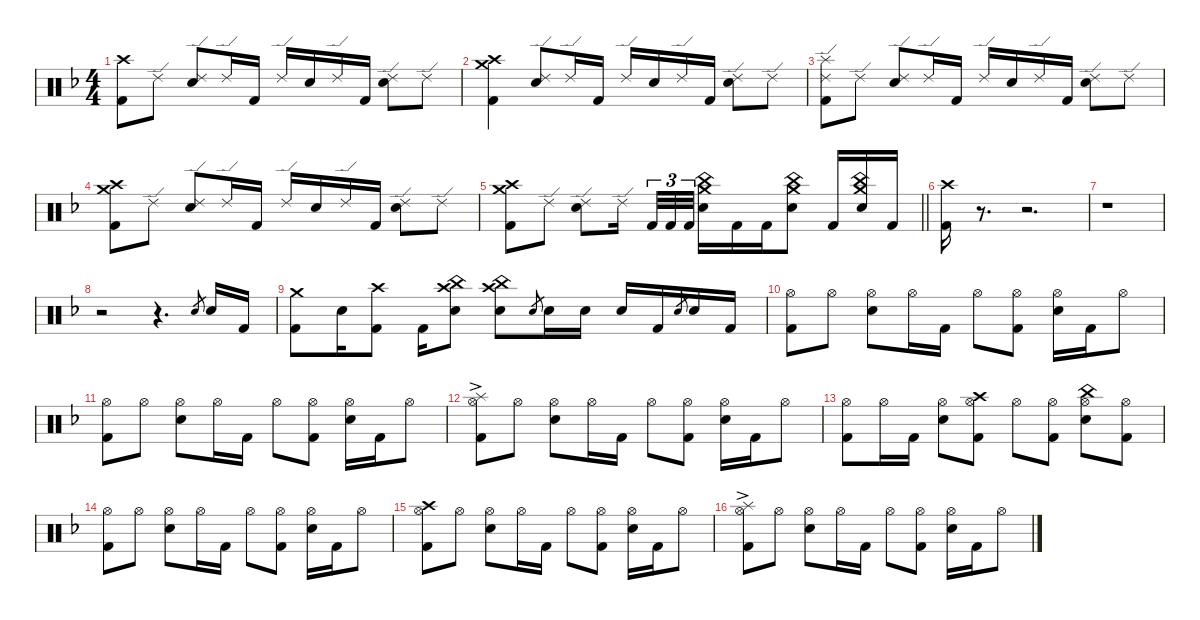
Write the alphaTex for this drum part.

\defaultSystemsLayout 4
\hideDynamics
\bracketExtendMode nobrackets
\singleTrackTrackNamePolicy hidden
\multiTrackTrackNamePolicy hidden
\otherSystemsTrackNameOrientation horizontal
\track ("Martin Lopez - Drums" "drm.") {defaultSystemsLayout 4 instrument percussion}
\staff {score}
\articulation defaults
\ts (4 4)
\tempo (89 hide)
\clef neutral
\ks dminor
("Crash high (hit)"{acc forcenatural} "Kick (hit) 2"{acc forcenatural}).8{dy mf beam Down} "Ride (edge) 2"{acc forcenatural}.8{dy f beam Down} ("Ride (edge) 2"{acc forcenatural} "Snare (hit) 2"{acc forcenatural}).8{dy mf beam Up} "Ride (edge) 2"{acc forcenatural}.16{dy f beam Up} "Kick (hit) 2"{acc forcenatural}.16{beam Up} "Ride (edge) 2"{acc forcenatural}.16{dy mf beam Up} "Snare (hit) 2"{acc forcenatural}.16{beam Up} "Ride (edge) 2"{acc forcenatural}.16{beam Up} "Kick (hit) 2"{acc forcenatural}.16{dy f beam Up} ("Ride (edge) 2"{acc forcenatural} "Snare (hit) 2"{acc forcenatural}).8{dy mf beam Down} "Ride (edge) 2"{acc forcenatural}.8{beam Down} |
\tempo (88 hide)
("Crash high (hit)"{acc forcenatural} "Crash medium (hit)"{acc forcenatural} "Kick (hit) 2"{acc forcenatural}).4{beam Down} ("Ride (edge) 2"{acc forcenatural} "Snare (hit) 2"{acc forcenatural}).8{beam Up} "Ride (edge) 2"{acc forcenatural}.16{beam Up} "Kick (hit) 2"{acc forcenatural}.16{beam Up} "Ride (edge) 2"{acc forcenatural}.16{beam Up} "Snare (hit) 2"{acc forcenatural}.16{beam Up} "Ride (edge) 2"{acc forcenatural}.16{beam Up} "Kick (hit) 2"{acc forcenatural}.16{beam Up} ("Ride (edge) 2"{acc forcenatural} "Snare (hit) 2"{acc forcenatural}).8{beam Down} "Ride (edge) 2"{acc forcenatural}.8{beam Down} |
\tempo (89 hide)
("Splash (hit)"{acc forcenatural} "Ride (edge) 2"{acc forcenatural} "Kick (hit) 2"{acc forcenatural}).8{beam Down} "Ride (edge) 2"{acc forcenatural}.8{dy f beam Down} ("Ride (edge) 2"{acc forcenatural} "Snare (hit) 2"{acc forcenatural}).8{dy mf beam Up} "Ride (edge) 2"{acc forcenatural}.16{dy f beam Up} "Kick (hit) 2"{acc forcenatural}.16{beam Up} "Ride (edge) 2"{acc forcenatural}.16{dy mf beam Up} "Snare (hit) 2"{acc forcenatural}.16{beam Up} "Ride (edge) 2"{acc forcenatural}.16{beam Up} "Kick (hit) 2"{acc forcenatural}.16{dy f beam Up} ("Ride (edge) 2"{acc forcenatural} "Snare (hit) 2"{acc forcenatural}).8{dy mf beam Down} "Ride (edge) 2"{acc forcenatural}.8{beam Down} |
\tempo (88 hide)
("Crash high (hit)"{acc forcenatural} "Crash medium (hit)"{acc forcenatural} "Kick (hit) 2"{acc forcenatural}).8{beam Down} "Ride (edge) 2"{acc forcenatural}.8{dy f beam Down} ("Ride (edge) 2"{acc forcenatural} "Snare (hit) 2"{acc forcenatural}).8{dy mf beam Up} "Ride (edge) 2"{acc forcenatural}.16{beam Up} "Kick (hit) 2"{acc forcenatural}.16{beam Up} "Ride (edge) 2"{acc forcenatural}.16{beam Up} "Snare (hit) 2"{acc forcenatural}.16{beam Up} "Ride (edge) 2"{acc forcenatural}.16{beam Up} "Kick (hit) 2"{acc forcenatural}.16{beam Up} ("Ride (edge) 2"{acc forcenatural} "Snare (hit) 2"{acc forcenatural}).8{beam Down} "Ride (edge) 2"{acc forcenatural}.8{beam Down} |
\tempo (89 hide)
\tempo (88 0.99375 hide)
\barLineRight lightlight
("Crash high (hit)"{acc forcenatural} "Crash medium (hit)"{acc forcenatural} "Kick (hit) 2"{acc forcenatural}).8{beam Down} "Ride (edge) 2"{acc forcenatural}.8{beam Down} ("Ride (edge) 2"{acc forcenatural} "Snare (hit) 2"{acc forcenatural}).8{beam Down} "Ride (edge) 2"{acc forcenatural}.16{beam Down} "Kick (hit) 2"{acc forcenatural}.32{tu (3 2) beam Up} "Kick (hit) 2"{acc forcenatural}.32{tu (3 2) beam Up} "Kick (hit) 2"{acc forcenatural}.32{tu (3 2) beam Up} ("Crash medium (hit)"{acc forcenatural} "China (hit)"{acc forcenatural} "Snare (hit) 2"{acc forcenatural}).16{beam Down} "Kick (hit) 2"{acc forcenatural}.16{beam Down} "Kick (hit) 2"{acc forcenatural}.16{beam Down} ("Crash medium (hit)"{acc forcenatural} "China (hit)"{acc forcenatural} "Snare (hit) 2"{acc forcenatural}).8{beam Down} "Kick (hit) 2"{acc forcenatural}.16{beam Up} ("Crash medium (hit)"{acc forcenatural} "China (hit)"{acc forcenatural} "Snare (hit) 2"{acc forcenatural}).16{beam Up} "Kick (hit) 2"{acc forcenatural}.16{beam Up} |
("Crash high (hit)"{acc forcenatural} "Kick (hit) 2"{acc forcenatural}).16{dy f beam Down} r.8{d beam Down} r.2{d beam Down} |
\tempo (89 hide)
r.1{beam Down} |
\tempo (88 0.00625 hide)
\tempo (89 0.99375 hide)
r.2{beam Down} r.4{d beam Down} "Electric Snare (hit)"{acc forcenatural}.8{gr dy p beam Up} "Snare (hit) 2"{acc forcenatural}.16{dy f beam Up} "Kick (hit) 2"{acc forcenatural}.16{beam Up} |
\tempo (88 0.99375 hide)
("Crash medium (hit)"{acc forcenatural} "Kick (hit) 2"{acc forcenatural}).8{beam Down} "Snare (hit) 2"{acc forcenatural}.16{beam Down} ("Crash high (hit)"{acc forcenatural} "Kick (hit) 2"{acc forcenatural}).8{beam Down} "Kick (hit) 2"{acc forcenatural}.16{beam Down} ("China (hit)"{acc forcenatural} "Crash high (hit)"{acc forcenatural} "Snare (hit) 2"{acc forcenatural}).8{beam Down} ("China (hit)"{acc forcenatural} "Crash high (hit)"{acc forcenatural} "Snare (hit) 2"{acc forcenatural}).8{beam Down} "Electric Snare (hit)"{acc forcenatural}.8{gr dy mp beam Up} "Snare (hit) 2"{acc forcenatural}.16{dy f beam Down} "Snare (hit) 2"{acc forcenatural}.16{beam Down} "Snare (hit) 2"{acc forcenatural}.16{beam Up} "Kick (hit) 2"{acc forcenatural}.16{beam Up} "Electric Snare (hit)"{acc forcenatural}.8{gr dy mp beam Up} "Snare (hit) 2"{acc forcenatural}.16{dy f beam Up} "Kick (hit) 2"{acc forcenatural}.16{beam Up} |
("Hi-Hat (open)"{acc forcenatural} "Kick (hit) 2"{acc forcenatural}).8{beam Down} "Hi-Hat (open)"{acc forcenatural}.8{beam Down} ("Hi-Hat (open)"{acc forcenatural} "Snare (hit) 2"{acc forcenatural}).8{beam Down} "Hi-Hat (open)"{acc forcenatural}.16{beam Down} "Kick (hit) 2"{acc forcenatural}.16{beam Down} "Hi-Hat (open)"{acc forcenatural}.8{beam Down} ("Hi-Hat (open)"{acc forcenatural} "Kick (hit) 2"{acc forcenatural}).8{beam Down} ("Hi-Hat (open)"{acc forcenatural} "Snare (hit) 2"{acc forcenatural}).16{beam Down} "Kick (hit) 2"{acc forcenatural}.16{beam Down} "Hi-Hat (open)"{acc forcenatural}.8{beam Down} |
\tempo (89 hide)
("Hi-Hat (open)"{acc forcenatural} "Kick (hit) 2"{acc forcenatural}).8{beam Down} "Hi-Hat (open)"{acc forcenatural}.8{beam Down} ("Hi-Hat (open)"{acc forcenatural} "Snare (hit) 2"{acc forcenatural}).8{beam Down} "Hi-Hat (open)"{acc forcenatural}.16{beam Down} "Kick (hit) 2"{acc forcenatural}.16{beam Down} "Hi-Hat (open)"{acc forcenatural}.8{beam Down} ("Hi-Hat (open)"{acc forcenatural} "Kick (hit) 2"{acc forcenatural}).8{beam Down} ("Hi-Hat (open)"{acc forcenatural} "Snare (hit) 2"{acc forcenatural}).16{beam Down} "Kick (hit) 2"{acc forcenatural}.16{beam Down} "Hi-Hat (open)"{acc forcenatural}.8{beam Down} |
\tempo (88 hide)
("Splash (hit)"{ac acc forcenatural} "Hi-Hat (open)"{acc forcenatural} "Kick (hit) 2"{acc forcenatural}).8{beam Down} "Hi-Hat (open)"{acc forcenatural}.8{beam Down} ("Hi-Hat (open)"{acc forcenatural} "Snare (hit) 2"{acc forcenatural}).8{beam Down} "Hi-Hat (open)"{acc forcenatural}.16{beam Down} "Kick (hit) 2"{acc forcenatural}.16{beam Down} "Hi-Hat (open)"{acc forcenatural}.8{beam Down} ("Hi-Hat (open)"{acc forcenatural} "Kick (hit) 2"{acc forcenatural}).8{beam Down} ("Hi-Hat (open)"{acc forcenatural} "Snare (hit) 2"{acc forcenatural}).16{beam Down} "Kick (hit) 2"{acc forcenatural}.16{beam Down} "Hi-Hat (open)"{acc forcenatural}.8{beam Down} |
\tempo (89 hide)
("Hi-Hat (open)"{acc forcenatural} "Kick (hit) 2"{acc forcenatural}).8{beam Down} "Hi-Hat (open)"{acc forcenatural}.16{beam Down} "Kick (hit) 2"{acc forcenatural}.16{beam Down} ("Hi-Hat (open)"{acc forcenatural} "Snare (hit) 2"{acc forcenatural}).8{beam Down} ("Crash high (hit)"{acc forcenatural} "Hi-Hat (open)"{acc forcenatural} "Kick (hit) 2"{acc forcenatural}).8{beam Down} "Hi-Hat (open)"{acc forcenatural}.8{beam Down} ("Hi-Hat (open)"{acc forcenatural} "Kick (hit) 2"{acc forcenatural}).8{beam Down} ("China (hit)"{acc forcenatural} "Hi-Hat (open)"{acc forcenatural} "Snare (hit) 2"{acc forcenatural}).8{beam Down} ("Hi-Hat (open)"{acc forcenatural} "Kick (hit) 2"{acc forcenatural}).8{beam Down} |
\tempo (88 hide)
\tempo (89 0.99375 hide)
("Hi-Hat (open)"{acc forcenatural} "Kick (hit) 2"{acc forcenatural}).8{beam Down} "Hi-Hat (open)"{acc forcenatural}.8{beam Down} ("Hi-Hat (open)"{acc forcenatural} "Snare (hit) 2"{acc forcenatural}).8{beam Down} "Hi-Hat (open)"{acc forcenatural}.16{beam Down} "Kick (hit) 2"{acc forcenatural}.16{beam Down} "Hi-Hat (open)"{acc forcenatural}.8{beam Down} ("Hi-Hat (open)"{acc forcenatural} "Kick (hit) 2"{acc forcenatural}).8{beam Down} ("Hi-Hat (open)"{acc forcenatural} "Snare (hit) 2"{acc forcenatural}).16{beam Down} "Kick (hit) 2"{acc forcenatural}.16{beam Down} "Hi-Hat (open)"{acc forcenatural}.8{beam Down} |
("Crash high (hit)"{acc forcenatural} "Hi-Hat (open)"{acc forcenatural} "Kick (hit) 2"{acc forcenatural}).8{beam Down} "Hi-Hat (open)"{acc forcenatural}.8{beam Down} ("Hi-Hat (open)"{acc forcenatural} "Snare (hit) 2"{acc forcenatural}).8{beam Down} "Hi-Hat (open)"{acc forcenatural}.16{beam Down} "Kick (hit) 2"{acc forcenatural}.16{beam Down} "Hi-Hat (open)"{acc forcenatural}.8{beam Down} ("Hi-Hat (open)"{acc forcenatural} "Kick (hit) 2"{acc forcenatural}).8{beam Down} ("Hi-Hat (open)"{acc forcenatural} "Snare (hit) 2"{acc forcenatural}).16{beam Down} "Kick (hit) 2"{acc forcenatural}.16{beam Down} "Hi-Hat (open)"{acc forcenatural}.8{beam Down} |
\tempo (88 hide)
("Splash (hit)"{ac acc forcenatural} "Hi-Hat (open)"{acc forcenatural} "Kick (hit) 2"{acc forcenatural}).8{beam Down} "Hi-Hat (open)"{acc forcenatural}.8{beam Down} ("Hi-Hat (open)"{acc forcenatural} "Snare (hit) 2"{acc forcenatural}).8{beam Down} "Hi-Hat (open)"{acc forcenatural}.16{beam Down} "Kick (hit) 2"{acc forcenatural}.16{beam Down} "Hi-Hat (open)"{acc forcenatural}.8{beam Down} ("Hi-Hat (open)"{acc forcenatural} "Kick (hit) 2"{acc forcenatural}).8{beam Down} ("Hi-Hat (open)"{acc forcenatural} "Snare (hit) 2"{acc forcenatural}).16{beam Down} "Kick (hit) 2"{acc forcenatural}.16{beam Down} "Hi-Hat (open)"{acc forcenatural}.8{beam Down}
